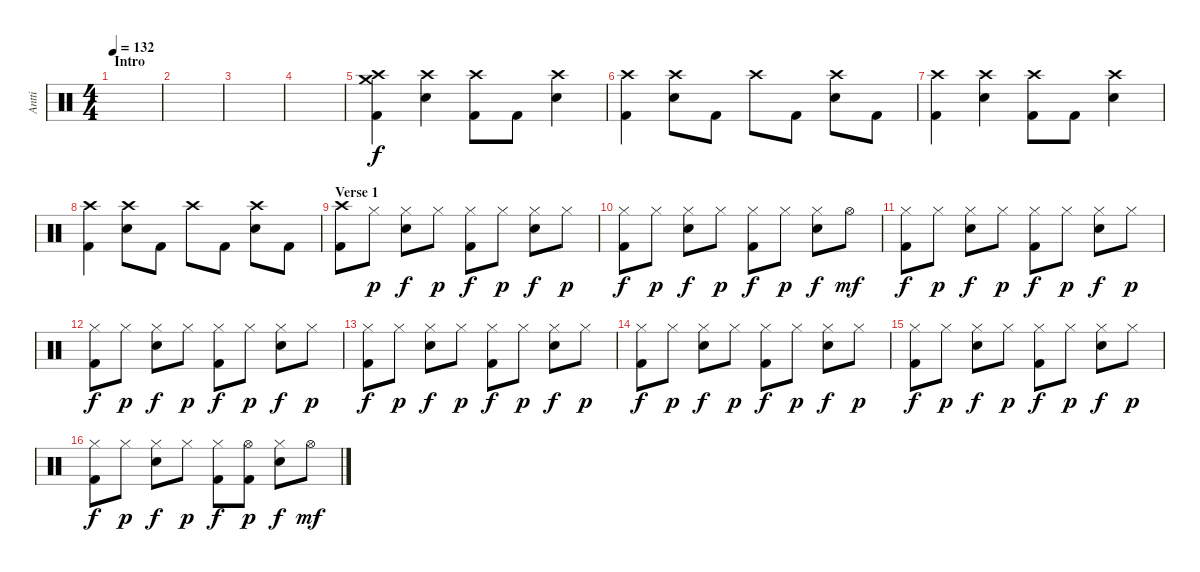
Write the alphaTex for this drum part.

\track ("Antti" "Antti") {instrument percussion}
\staff {score}
\articulation defaults
\ts (4 4)
\section ("" "Intro")
\tempo 132
\clef neutral
\ks c
|
|
|
|
("Crash medium (hit)" "Crash high (hit)" "Kick (hit) 2").4 ("Crash high (hit)" "Electric Snare (hit)").4 ("Crash high (hit)" "Kick (hit) 2").8 "Kick (hit) 2".8 ("Crash high (hit)" "Electric Snare (hit)").4 |
("Crash high (hit)" "Kick (hit) 2").4 ("Crash high (hit)" "Electric Snare (hit)").8 "Kick (hit) 2".8 "Crash high (hit)".8 "Kick (hit) 2".8 ("Crash high (hit)" "Electric Snare (hit)").8 "Kick (hit) 2".8 |
("Crash high (hit)" "Kick (hit) 2").4 ("Crash high (hit)" "Electric Snare (hit)").4 ("Crash high (hit)" "Kick (hit) 2").8 "Kick (hit) 2".8 ("Crash high (hit)" "Electric Snare (hit)").4 |
("Crash high (hit)" "Kick (hit) 2").4 ("Crash high (hit)" "Electric Snare (hit)").8 "Kick (hit) 2".8 "Crash high (hit)".8 "Kick (hit) 2".8 ("Crash high (hit)" "Electric Snare (hit)").8 "Kick (hit) 2".8 |
\section ("" "Verse 1")
("Crash high (hit)" "Kick (hit) 2").8 "Hi-Hat (closed)".8{dy p} ("Hi-Hat (closed)" "Electric Snare (hit)").8{dy f} "Hi-Hat (closed)".8{dy p} ("Hi-Hat (closed)" "Kick (hit) 2").8{dy f} "Hi-Hat (closed)".8{dy p} ("Hi-Hat (closed)" "Electric Snare (hit)").8{dy f} "Hi-Hat (closed)".8{dy p} |
("Hi-Hat (closed)" "Kick (hit) 2").8{dy f} "Hi-Hat (closed)".8{dy p} ("Hi-Hat (closed)" "Electric Snare (hit)").8{dy f} "Hi-Hat (closed)".8{dy p} ("Hi-Hat (closed)" "Kick (hit) 2").8{dy f} "Hi-Hat (closed)".8{dy p} ("Hi-Hat (closed)" "Electric Snare (hit)").8{dy f} "Hi-Hat (open)".8{dy mf} |
("Hi-Hat (closed)" "Kick (hit) 2").8{dy f} "Hi-Hat (closed)".8{dy p} ("Hi-Hat (closed)" "Electric Snare (hit)").8{dy f} "Hi-Hat (closed)".8{dy p} ("Hi-Hat (closed)" "Kick (hit) 2").8{dy f} "Hi-Hat (closed)".8{dy p} ("Hi-Hat (closed)" "Electric Snare (hit)").8{dy f} "Hi-Hat (closed)".8{dy p} |
("Hi-Hat (closed)" "Kick (hit) 2").8{dy f} "Hi-Hat (closed)".8{dy p} ("Hi-Hat (closed)" "Electric Snare (hit)").8{dy f} "Hi-Hat (closed)".8{dy p} ("Hi-Hat (closed)" "Kick (hit) 2").8{dy f} "Hi-Hat (closed)".8{dy p} ("Hi-Hat (closed)" "Electric Snare (hit)").8{dy f} "Hi-Hat (closed)".8{dy p} |
("Hi-Hat (closed)" "Kick (hit) 2").8{dy f} "Hi-Hat (closed)".8{dy p} ("Hi-Hat (closed)" "Electric Snare (hit)").8{dy f} "Hi-Hat (closed)".8{dy p} ("Hi-Hat (closed)" "Kick (hit) 2").8{dy f} "Hi-Hat (closed)".8{dy p} ("Hi-Hat (closed)" "Electric Snare (hit)").8{dy f} "Hi-Hat (closed)".8{dy p} |
("Hi-Hat (closed)" "Kick (hit) 2").8{dy f} "Hi-Hat (closed)".8{dy p} ("Hi-Hat (closed)" "Electric Snare (hit)").8{dy f} "Hi-Hat (closed)".8{dy p} ("Hi-Hat (closed)" "Kick (hit) 2").8{dy f} "Hi-Hat (closed)".8{dy p} ("Hi-Hat (closed)" "Electric Snare (hit)").8{dy f} "Hi-Hat (closed)".8{dy p} |
("Hi-Hat (closed)" "Kick (hit) 2").8{dy f} "Hi-Hat (closed)".8{dy p} ("Hi-Hat (closed)" "Electric Snare (hit)").8{dy f} "Hi-Hat (closed)".8{dy p} ("Hi-Hat (closed)" "Kick (hit) 2").8{dy f} "Hi-Hat (closed)".8{dy p} ("Hi-Hat (closed)" "Electric Snare (hit)").8{dy f} "Hi-Hat (closed)".8{dy p} |
("Hi-Hat (closed)" "Kick (hit) 2").8{dy f} "Hi-Hat (closed)".8{dy p} ("Hi-Hat (closed)" "Electric Snare (hit)").8{dy f} "Hi-Hat (closed)".8{dy p} ("Hi-Hat (closed)" "Kick (hit) 2").8{dy f} ("Hi-Hat (open)" "Kick (hit) 2").8{dy p} ("Hi-Hat (closed)" "Electric Snare (hit)").8{dy f} "Hi-Hat (open)".8{dy mf}
